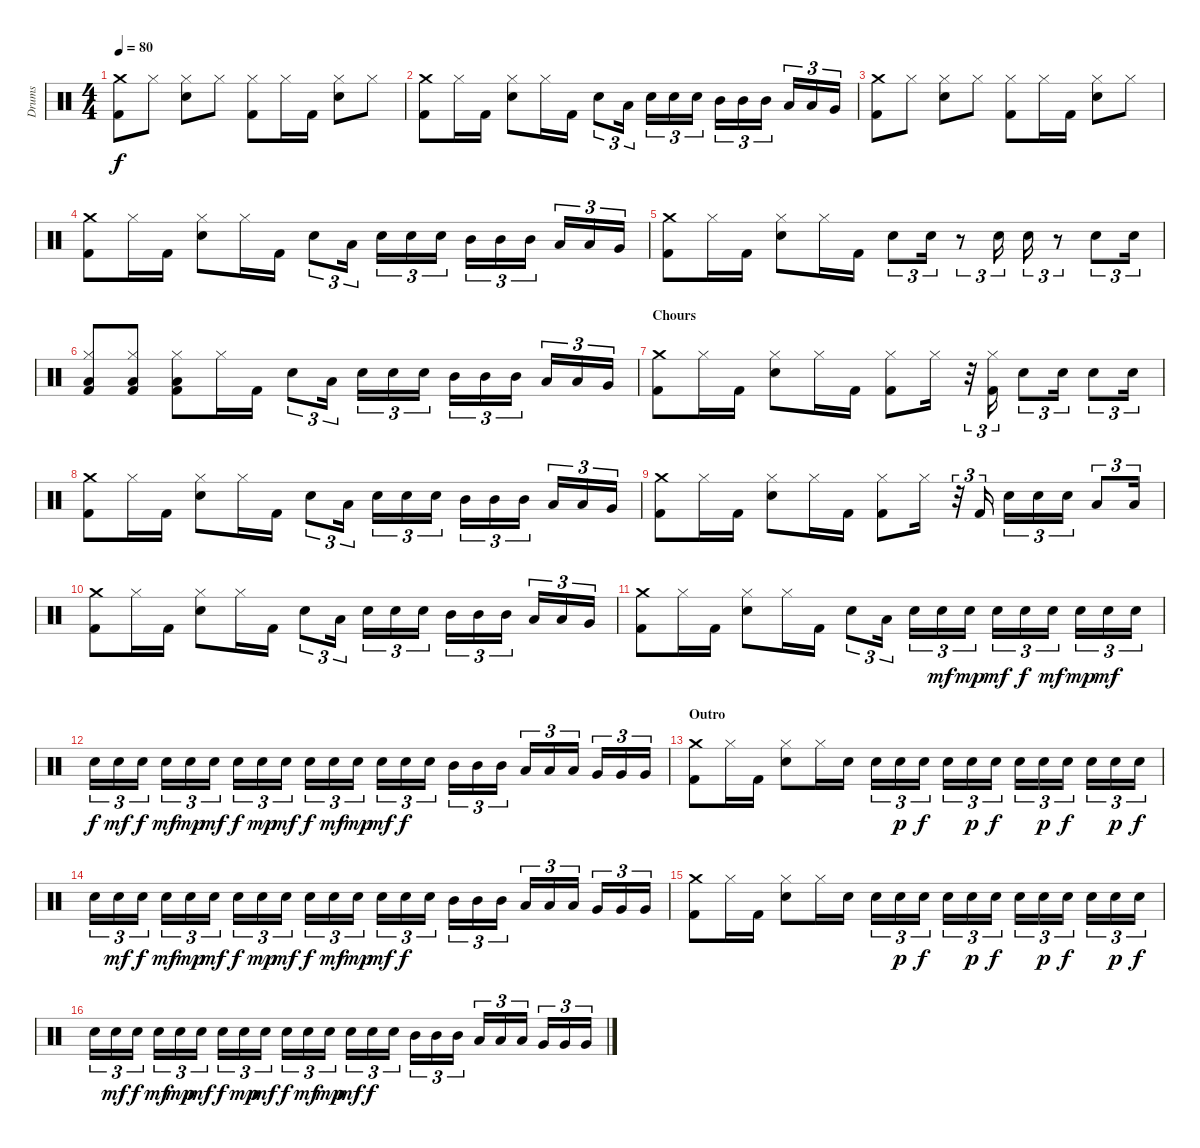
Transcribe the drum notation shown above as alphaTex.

\track ("Drums" "Drums") {instrument percussion}
\staff {score}
\articulation defaults
\ts (4 4)
\tempo 80
\clef neutral
\ks c
("Crash medium (hit)" "Kick (hit) 2").8{dy f} "Hi-Hat (closed)".8 ("Hi-Hat (closed)" "Electric Snare (hit)").8 "Hi-Hat (closed)".8 ("Hi-Hat (closed)" "Kick (hit) 2").8 "Hi-Hat (closed)".16 "Kick (hit) 2".16 ("Hi-Hat (closed)" "Electric Snare (hit)").8 "Hi-Hat (closed)".8 |
("Crash medium (hit)" "Kick (hit) 2").8 "Hi-Hat (closed)".16 "Kick (hit) 2".16 ("Hi-Hat (closed)" "Electric Snare (hit)").8 "Hi-Hat (closed)".16 "Kick (hit) 2".16 "Electric Snare (hit)".8{tu (3 2)} "Low Tom (hit)".16{tu (3 2)} "Electric Snare (hit)".16{tu (3 2)} "Electric Snare (hit)".16{tu (3 2)} "Electric Snare (hit)".16{tu (3 2)} "Mid Tom (hit)".16{tu (3 2)} "Mid Tom (hit)".16{tu (3 2)} "Mid Tom (hit)".16{tu (3 2)} "Low Tom (hit)".16{tu (3 2)} "Low Tom (hit)".16{tu (3 2)} "Very Low Tom (hit)".16{tu (3 2)} |
("Crash medium (hit)" "Kick (hit) 2").8 "Hi-Hat (closed)".8 ("Hi-Hat (closed)" "Electric Snare (hit)").8 "Hi-Hat (closed)".8 ("Hi-Hat (closed)" "Kick (hit) 2").8 "Hi-Hat (closed)".16 "Kick (hit) 2".16 ("Hi-Hat (closed)" "Electric Snare (hit)").8 "Hi-Hat (closed)".8 |
("Crash medium (hit)" "Kick (hit) 2").8 "Hi-Hat (closed)".16 "Kick (hit) 2".16 ("Hi-Hat (closed)" "Electric Snare (hit)").8 "Hi-Hat (closed)".16 "Kick (hit) 2".16 "Electric Snare (hit)".8{tu (3 2)} "Low Tom (hit)".16{tu (3 2)} "Electric Snare (hit)".16{tu (3 2)} "Electric Snare (hit)".16{tu (3 2)} "Electric Snare (hit)".16{tu (3 2)} "Mid Tom (hit)".16{tu (3 2)} "Mid Tom (hit)".16{tu (3 2)} "Mid Tom (hit)".16{tu (3 2)} "Low Tom (hit)".16{tu (3 2)} "Low Tom (hit)".16{tu (3 2)} "Very Low Tom (hit)".16{tu (3 2)} |
("Crash medium (hit)" "Kick (hit) 2").8 "Hi-Hat (closed)".16 "Kick (hit) 2".16 ("Hi-Hat (closed)" "Electric Snare (hit)").8 "Hi-Hat (closed)".16 "Kick (hit) 2".16 "Electric Snare (hit)".8{tu (3 2)} "Electric Snare (hit)".16{tu (3 2)} r.8{tu (3 2)} "Electric Snare (hit)".16{tu (3 2)} "Electric Snare (hit)".16{tu (3 2)} r.8{tu (3 2)} "Electric Snare (hit)".8{tu (3 2)} "Electric Snare (hit)".16{tu (3 2)} |
("Hi-Hat (closed)" "Low Tom (hit)" "Kick (hit) 2").8 ("Hi-Hat (closed)" "Low Tom (hit)" "Kick (hit) 2").8 ("Hi-Hat (closed)" "Low Tom (hit)" "Kick (hit) 2").8 "Hi-Hat (closed)".16 "Kick (hit) 2".16 "Electric Snare (hit)".8{tu (3 2)} "Low Tom (hit)".16{tu (3 2)} "Electric Snare (hit)".16{tu (3 2)} "Electric Snare (hit)".16{tu (3 2)} "Electric Snare (hit)".16{tu (3 2)} "Mid Tom (hit)".16{tu (3 2)} "Mid Tom (hit)".16{tu (3 2)} "Mid Tom (hit)".16{tu (3 2)} "Low Tom (hit)".16{tu (3 2)} "Low Tom (hit)".16{tu (3 2)} "Very Low Tom (hit)".16{tu (3 2)} |
\section ("" "Chours")
("Crash medium (hit)" "Kick (hit) 2").8 "Hi-Hat (closed)".16 "Kick (hit) 2".16 ("Hi-Hat (closed)" "Electric Snare (hit)").8 "Hi-Hat (closed)".16 "Kick (hit) 2".16 ("Hi-Hat (closed)" "Kick (hit) 2").8 "Hi-Hat (closed)".16 r.32{tu (3 2)} ("Hi-Hat (closed)" "Kick (hit) 2").16{tu (3 2)} "Electric Snare (hit)".8{tu (3 2)} "Electric Snare (hit)".16{tu (3 2)} "Electric Snare (hit)".8{tu (3 2)} "Electric Snare (hit)".16{tu (3 2)} |
("Crash medium (hit)" "Kick (hit) 2").8 "Hi-Hat (closed)".16 "Kick (hit) 2".16 ("Hi-Hat (closed)" "Electric Snare (hit)").8 "Hi-Hat (closed)".16 "Kick (hit) 2".16 "Electric Snare (hit)".8{tu (3 2)} "Low Tom (hit)".16{tu (3 2)} "Electric Snare (hit)".16{tu (3 2)} "Electric Snare (hit)".16{tu (3 2)} "Electric Snare (hit)".16{tu (3 2)} "Mid Tom (hit)".16{tu (3 2)} "Mid Tom (hit)".16{tu (3 2)} "Mid Tom (hit)".16{tu (3 2)} "Low Tom (hit)".16{tu (3 2)} "Low Tom (hit)".16{tu (3 2)} "Very Low Tom (hit)".16{tu (3 2)} |
("Crash medium (hit)" "Kick (hit) 2").8 "Hi-Hat (closed)".16 "Kick (hit) 2".16 ("Hi-Hat (closed)" "Electric Snare (hit)").8 "Hi-Hat (closed)".16 "Kick (hit) 2".16 ("Hi-Hat (closed)" "Kick (hit) 2").8 "Hi-Hat (closed)".16 r.32{tu (3 2)} "Kick (hit) 2".16{tu (3 2)} "Electric Snare (hit)".16{tu (3 2)} "Electric Snare (hit)".16{tu (3 2)} "Electric Snare (hit)".16{tu (3 2)} "Low Tom (hit)".8{tu (3 2)} "Low Tom (hit)".16{tu (3 2)} |
("Crash medium (hit)" "Kick (hit) 2").8 "Hi-Hat (closed)".16 "Kick (hit) 2".16 ("Hi-Hat (closed)" "Electric Snare (hit)").8 "Hi-Hat (closed)".16 "Kick (hit) 2".16 "Electric Snare (hit)".8{tu (3 2)} "Low Tom (hit)".16{tu (3 2)} "Electric Snare (hit)".16{tu (3 2)} "Electric Snare (hit)".16{tu (3 2)} "Electric Snare (hit)".16{tu (3 2)} "Mid Tom (hit)".16{tu (3 2)} "Mid Tom (hit)".16{tu (3 2)} "Mid Tom (hit)".16{tu (3 2)} "Low Tom (hit)".16{tu (3 2)} "Low Tom (hit)".16{tu (3 2)} "Very Low Tom (hit)".16{tu (3 2)} |
("Crash medium (hit)" "Kick (hit) 2").8 "Hi-Hat (closed)".16 "Kick (hit) 2".16 ("Hi-Hat (closed)" "Electric Snare (hit)").8 "Hi-Hat (closed)".16 "Kick (hit) 2".16 "Electric Snare (hit)".8{tu (3 2)} "Low Tom (hit)".16{tu (3 2)} "Electric Snare (hit)".16{tu (3 2)} "Electric Snare (hit)".16{tu (3 2) dy mf} "Electric Snare (hit)".16{tu (3 2) dy mp} "Electric Snare (hit)".16{tu (3 2) dy mf} "Electric Snare (hit)".16{tu (3 2) dy f} "Electric Snare (hit)".16{tu (3 2) dy mf} "Electric Snare (hit)".16{tu (3 2) dy mp} "Electric Snare (hit)".16{tu (3 2) dy mf} "Electric Snare (hit)".16{tu (3 2)} |
"Electric Snare (hit)".16{tu (3 2) dy f} "Electric Snare (hit)".16{tu (3 2) dy mf} "Electric Snare (hit)".16{tu (3 2) dy f} "Electric Snare (hit)".16{tu (3 2) dy mf} "Electric Snare (hit)".16{tu (3 2) dy mp} "Electric Snare (hit)".16{tu (3 2) dy mf} "Electric Snare (hit)".16{tu (3 2) dy f} "Electric Snare (hit)".16{tu (3 2) dy mp} "Electric Snare (hit)".16{tu (3 2) dy mf} "Electric Snare (hit)".16{tu (3 2) dy f} "Electric Snare (hit)".16{tu (3 2) dy mf} "Electric Snare (hit)".16{tu (3 2) dy mp} "Electric Snare (hit)".16{tu (3 2) dy mf} "Electric Snare (hit)".16{tu (3 2) dy f} "Electric Snare (hit)".16{tu (3 2)} "Mid Tom (hit)".16{tu (3 2)} "Mid Tom (hit)".16{tu (3 2)} "Mid Tom (hit)".16{tu (3 2)} "Low Tom (hit)".16{tu (3 2)} "Low Tom (hit)".16{tu (3 2)} "Low Tom (hit)".16{tu (3 2)} "Very Low Tom (hit)".16{tu (3 2)} "Very Low Tom (hit)".16{tu (3 2)} "Very Low Tom (hit)".16{tu (3 2)} |
\section ("" "Outro")
("Crash medium (hit)" "Kick (hit) 2").8 "Hi-Hat (closed)".16 "Kick (hit) 2".16 ("Hi-Hat (closed)" "Electric Snare (hit)").8 "Hi-Hat (closed)".16 "Electric Snare (hit)".16 "Electric Snare (hit)".16{tu (3 2)} "Electric Snare (hit)".16{tu (3 2) dy p} "Electric Snare (hit)".16{tu (3 2) dy f} "Electric Snare (hit)".16{tu (3 2)} "Electric Snare (hit)".16{tu (3 2) dy p} "Electric Snare (hit)".16{tu (3 2) dy f} "Electric Snare (hit)".16{tu (3 2)} "Electric Snare (hit)".16{tu (3 2) dy p} "Electric Snare (hit)".16{tu (3 2) dy f} "Electric Snare (hit)".16{tu (3 2)} "Electric Snare (hit)".16{tu (3 2) dy p} "Electric Snare (hit)".16{tu (3 2) dy f} |
"Electric Snare (hit)".16{tu (3 2)} "Electric Snare (hit)".16{tu (3 2) dy mf} "Electric Snare (hit)".16{tu (3 2) dy f} "Electric Snare (hit)".16{tu (3 2) dy mf} "Electric Snare (hit)".16{tu (3 2) dy mp} "Electric Snare (hit)".16{tu (3 2) dy mf} "Electric Snare (hit)".16{tu (3 2) dy f} "Electric Snare (hit)".16{tu (3 2) dy mp} "Electric Snare (hit)".16{tu (3 2) dy mf} "Electric Snare (hit)".16{tu (3 2) dy f} "Electric Snare (hit)".16{tu (3 2) dy mf} "Electric Snare (hit)".16{tu (3 2) dy mp} "Electric Snare (hit)".16{tu (3 2) dy mf} "Electric Snare (hit)".16{tu (3 2) dy f} "Electric Snare (hit)".16{tu (3 2)} "Mid Tom (hit)".16{tu (3 2)} "Mid Tom (hit)".16{tu (3 2)} "Mid Tom (hit)".16{tu (3 2)} "Low Tom (hit)".16{tu (3 2)} "Low Tom (hit)".16{tu (3 2)} "Low Tom (hit)".16{tu (3 2)} "Very Low Tom (hit)".16{tu (3 2)} "Very Low Tom (hit)".16{tu (3 2)} "Very Low Tom (hit)".16{tu (3 2)} |
("Crash medium (hit)" "Kick (hit) 2").8 "Hi-Hat (closed)".16 "Kick (hit) 2".16 ("Hi-Hat (closed)" "Electric Snare (hit)").8 "Hi-Hat (closed)".16 "Electric Snare (hit)".16 "Electric Snare (hit)".16{tu (3 2)} "Electric Snare (hit)".16{tu (3 2) dy p} "Electric Snare (hit)".16{tu (3 2) dy f} "Electric Snare (hit)".16{tu (3 2)} "Electric Snare (hit)".16{tu (3 2) dy p} "Electric Snare (hit)".16{tu (3 2) dy f} "Electric Snare (hit)".16{tu (3 2)} "Electric Snare (hit)".16{tu (3 2) dy p} "Electric Snare (hit)".16{tu (3 2) dy f} "Electric Snare (hit)".16{tu (3 2)} "Electric Snare (hit)".16{tu (3 2) dy p} "Electric Snare (hit)".16{tu (3 2) dy f} |
"Electric Snare (hit)".16{tu (3 2)} "Electric Snare (hit)".16{tu (3 2) dy mf} "Electric Snare (hit)".16{tu (3 2) dy f} "Electric Snare (hit)".16{tu (3 2) dy mf} "Electric Snare (hit)".16{tu (3 2) dy mp} "Electric Snare (hit)".16{tu (3 2) dy mf} "Electric Snare (hit)".16{tu (3 2) dy f} "Electric Snare (hit)".16{tu (3 2) dy mp} "Electric Snare (hit)".16{tu (3 2) dy mf} "Electric Snare (hit)".16{tu (3 2) dy f} "Electric Snare (hit)".16{tu (3 2) dy mf} "Electric Snare (hit)".16{tu (3 2) dy mp} "Electric Snare (hit)".16{tu (3 2) dy mf} "Electric Snare (hit)".16{tu (3 2) dy f} "Electric Snare (hit)".16{tu (3 2)} "Mid Tom (hit)".16{tu (3 2)} "Mid Tom (hit)".16{tu (3 2)} "Mid Tom (hit)".16{tu (3 2)} "Low Tom (hit)".16{tu (3 2)} "Low Tom (hit)".16{tu (3 2)} "Low Tom (hit)".16{tu (3 2)} "Very Low Tom (hit)".16{tu (3 2)} "Very Low Tom (hit)".16{tu (3 2)} "Very Low Tom (hit)".16{tu (3 2)}
